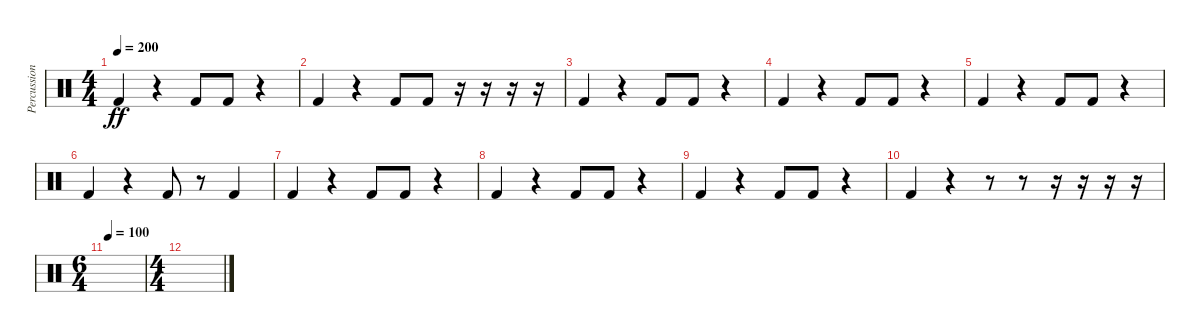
\track ("Percussions 2" "Percussion") {instrument percussion}
\staff {score}
\articulation defaults
\ts (4 4)
\tempo 200
\clef neutral
\ks c "Kick (hit) 2".4{dy ff}
r.4 "Kick (hit) 2".8 "Kick (hit) 2".8 r.4 |
"Kick (hit) 2".4 r.4 "Kick (hit) 2".8 "Kick (hit) 2".8 r.16 r.16 r.16 r.16 |
"Kick (hit) 2".4 r.4 "Kick (hit) 2".8 "Kick (hit) 2".8 r.4 |
"Kick (hit) 2".4 r.4 "Kick (hit) 2".8 "Kick (hit) 2".8 r.4 |
"Kick (hit) 2".4 r.4 "Kick (hit) 2".8 "Kick (hit) 2".8 r.4 |
"Kick (hit) 2".4 r.4 "Kick (hit) 2".8 r.8 "Kick (hit) 2".4 |
"Kick (hit) 2".4 r.4 "Kick (hit) 2".8 "Kick (hit) 2".8 r.4 |
"Kick (hit) 2".4 r.4 "Kick (hit) 2".8 "Kick (hit) 2".8 r.4 |
"Kick (hit) 2".4 r.4 "Kick (hit) 2".8 "Kick (hit) 2".8 r.4 |
"Kick (hit) 2".4 r.4 r.8 r.8 r.16 r.16 r.16 r.16 |
\ts (6 4)
\tempo (100 0.020833333333333332)
|
\ts (4 4)
